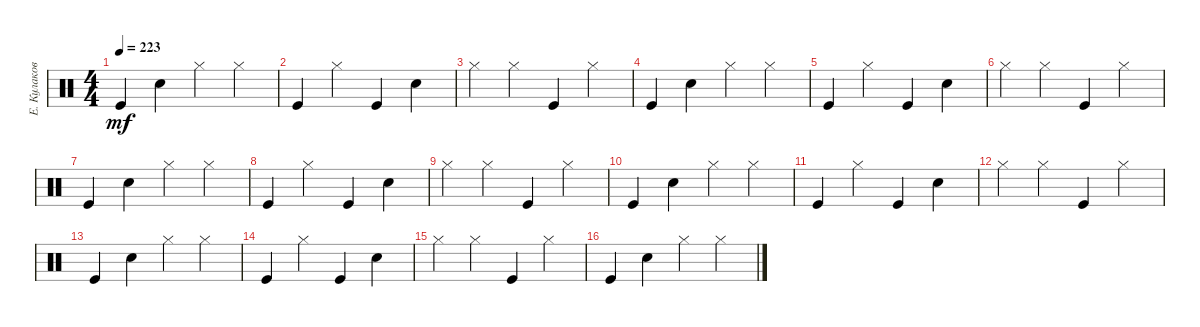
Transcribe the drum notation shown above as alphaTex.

\track ("Е. Кулаков" "Е. Кулаков") {instrument percussion}
\staff {score}
\articulation defaults
\ts (4 4)
\tempo 223
\clef neutral
\ks c "Kick (hit)".4{dy mf} "Snare (hit) 2".4 "Hi-Hat (closed)".4 "Hi-Hat (closed)".4
|
"Kick (hit)".4 "Hi-Hat (closed)".4 "Kick (hit)".4 "Snare (hit) 2".4 |
"Hi-Hat (closed)".4 "Hi-Hat (closed)".4 "Kick (hit)".4 "Hi-Hat (closed)".4 |
"Kick (hit)".4 "Snare (hit) 2".4 "Hi-Hat (closed)".4 "Hi-Hat (closed)".4 |
"Kick (hit)".4 "Hi-Hat (closed)".4 "Kick (hit)".4 "Snare (hit) 2".4 |
"Hi-Hat (closed)".4 "Hi-Hat (closed)".4 "Kick (hit)".4 "Hi-Hat (closed)".4 |
"Kick (hit)".4 "Snare (hit) 2".4 "Hi-Hat (closed)".4 "Hi-Hat (closed)".4 |
"Kick (hit)".4 "Hi-Hat (closed)".4 "Kick (hit)".4 "Snare (hit) 2".4 |
"Hi-Hat (closed)".4 "Hi-Hat (closed)".4 "Kick (hit)".4 "Hi-Hat (closed)".4 |
"Kick (hit)".4 "Snare (hit) 2".4 "Hi-Hat (closed)".4 "Hi-Hat (closed)".4 |
"Kick (hit)".4 "Hi-Hat (closed)".4 "Kick (hit)".4 "Snare (hit) 2".4 |
"Hi-Hat (closed)".4 "Hi-Hat (closed)".4 "Kick (hit)".4 "Hi-Hat (closed)".4 |
"Kick (hit)".4 "Snare (hit) 2".4 "Hi-Hat (closed)".4 "Hi-Hat (closed)".4 |
"Kick (hit)".4 "Hi-Hat (closed)".4 "Kick (hit)".4 "Snare (hit) 2".4 |
"Hi-Hat (closed)".4 "Hi-Hat (closed)".4 "Kick (hit)".4 "Hi-Hat (closed)".4 |
"Kick (hit)".4 "Snare (hit) 2".4 "Hi-Hat (closed)".4 "Hi-Hat (closed)".4
